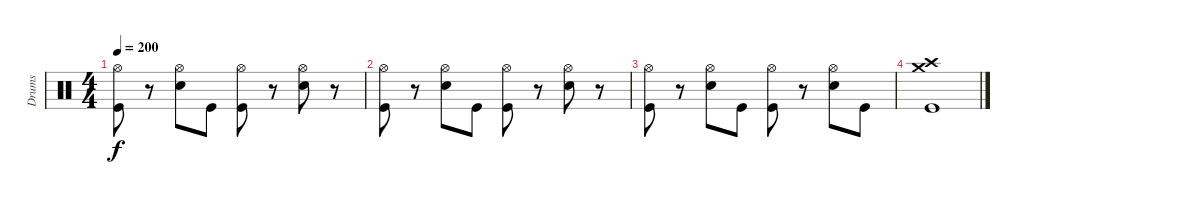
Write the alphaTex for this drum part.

\track ("Drums" "Drums") {instrument percussion}
\staff {score}
\articulation defaults
\ts (4 4)
\tempo 200
\clef neutral
\ks c
("Hi-Hat (open)" "Kick (hit)").8{dy f} r.8 ("Hi-Hat (open)" "Snare (hit) 2").8 "Kick (hit)".8 ("Hi-Hat (open)" "Kick (hit)").8 r.8 ("Hi-Hat (open)" "Snare (hit) 2").8 r.8 |
("Hi-Hat (open)" "Kick (hit)").8 r.8 ("Hi-Hat (open)" "Snare (hit) 2").8 "Kick (hit)".8 ("Hi-Hat (open)" "Kick (hit)").8 r.8 ("Hi-Hat (open)" "Snare (hit) 2").8 r.8 |
("Hi-Hat (open)" "Kick (hit)").8 r.8 ("Hi-Hat (open)" "Snare (hit) 2").8 "Kick (hit)".8 ("Hi-Hat (open)" "Kick (hit)").8 r.8 ("Hi-Hat (open)" "Snare (hit) 2").8 "Kick (hit)".8 |
("Crash high (hit)" "Crash medium (hit)" "Kick (hit)").1
